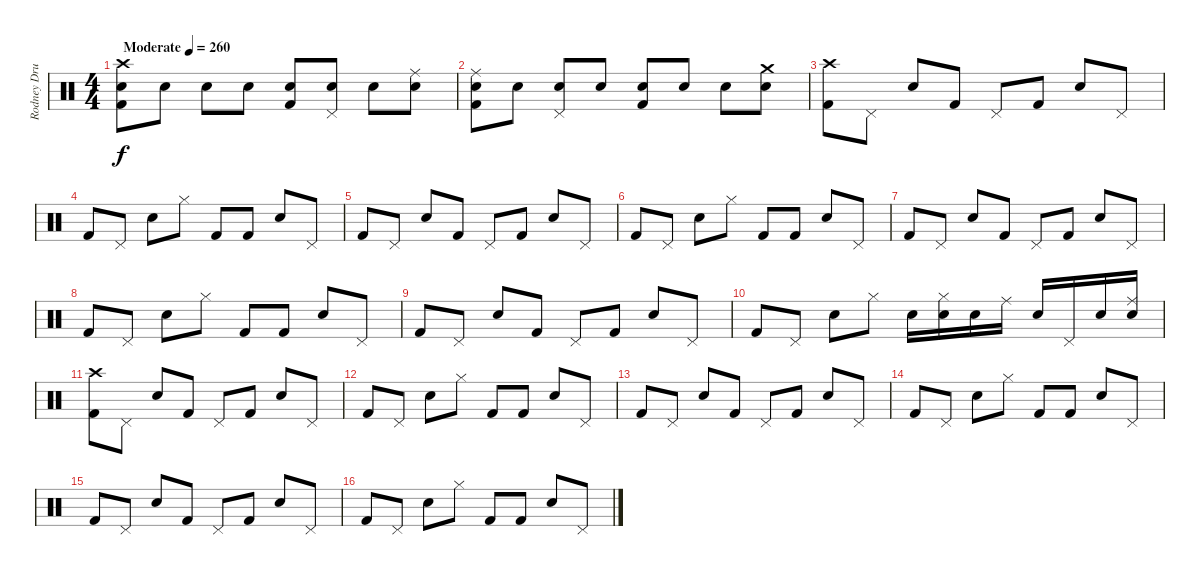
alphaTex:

\track ("Rodney Drums" "Rodney Dru") {instrument percussion}
\staff {score}
\articulation defaults
\ts (4 4)
\tempo (260 "Moderate")
\clef neutral
\ks c
("Crash high (hit)" "Electric Snare (hit)" "Kick (hit) 2").8{dy f} "Electric Snare (hit)".8 "Electric Snare (hit)".8 "Electric Snare (hit)".8 ("Electric Snare (hit)" "Kick (hit) 2").8 ("Pedal Hi-Hat (hit)" "Electric Snare (hit)").8 "Electric Snare (hit)".8 ("Electric Snare (hit)" "Ride (middle)").8 |
("Electric Snare (hit)" "Kick (hit) 2" "Ride (middle)").8 "Electric Snare (hit)".8 ("Pedal Hi-Hat (hit)" "Electric Snare (hit)").8 "Electric Snare (hit)".8 ("Electric Snare (hit)" "Kick (hit) 2").8 "Electric Snare (hit)".8 "Electric Snare (hit)".8 ("Crash medium (hit)" "Electric Snare (hit)").8 |
("Crash high (hit)" "Kick (hit) 2").8 "Pedal Hi-Hat (hit)".8 "Electric Snare (hit)".8 "Kick (hit) 2".8 "Pedal Hi-Hat (hit)".8 "Kick (hit) 2".8 "Electric Snare (hit)".8 "Pedal Hi-Hat (hit)".8 |
"Kick (hit) 2".8 "Pedal Hi-Hat (hit)".8 "Electric Snare (hit)".8 "Hi-Hat (closed)".8 "Kick (hit) 2".8 "Kick (hit) 2".8 "Electric Snare (hit)".8 "Pedal Hi-Hat (hit)".8 |
"Kick (hit) 2".8 "Pedal Hi-Hat (hit)".8 "Electric Snare (hit)".8 "Kick (hit) 2".8 "Pedal Hi-Hat (hit)".8 "Kick (hit) 2".8 "Electric Snare (hit)".8 "Pedal Hi-Hat (hit)".8 |
"Kick (hit) 2".8 "Pedal Hi-Hat (hit)".8 "Electric Snare (hit)".8 "Hi-Hat (closed)".8 "Kick (hit) 2".8 "Kick (hit) 2".8 "Electric Snare (hit)".8 "Pedal Hi-Hat (hit)".8 |
"Kick (hit) 2".8 "Pedal Hi-Hat (hit)".8 "Electric Snare (hit)".8 "Kick (hit) 2".8 "Pedal Hi-Hat (hit)".8 "Kick (hit) 2".8 "Electric Snare (hit)".8 "Pedal Hi-Hat (hit)".8 |
"Kick (hit) 2".8 "Pedal Hi-Hat (hit)".8 "Electric Snare (hit)".8 "Hi-Hat (closed)".8 "Kick (hit) 2".8 "Kick (hit) 2".8 "Electric Snare (hit)".8 "Pedal Hi-Hat (hit)".8 |
"Kick (hit) 2".8 "Pedal Hi-Hat (hit)".8 "Electric Snare (hit)".8 "Kick (hit) 2".8 "Pedal Hi-Hat (hit)".8 "Kick (hit) 2".8 "Electric Snare (hit)".8 "Pedal Hi-Hat (hit)".8 |
"Kick (hit) 2".8 "Pedal Hi-Hat (hit)".8 "Electric Snare (hit)".8 "Hi-Hat (closed)".8 "Electric Snare (hit)".16 ("Hi-Hat (closed)" "Electric Snare (hit)").16 "Electric Snare (hit)".16 "Ride (middle)".16 "Electric Snare (hit)".16 "Pedal Hi-Hat (hit)".16 "Electric Snare (hit)".16 ("Electric Snare (hit)" "Ride (middle)").16 |
("Crash high (hit)" "Kick (hit) 2").8 "Pedal Hi-Hat (hit)".8 "Electric Snare (hit)".8 "Kick (hit) 2".8 "Pedal Hi-Hat (hit)".8 "Kick (hit) 2".8 "Electric Snare (hit)".8 "Pedal Hi-Hat (hit)".8 |
"Kick (hit) 2".8 "Pedal Hi-Hat (hit)".8 "Electric Snare (hit)".8 "Hi-Hat (closed)".8 "Kick (hit) 2".8 "Kick (hit) 2".8 "Electric Snare (hit)".8 "Pedal Hi-Hat (hit)".8 |
"Kick (hit) 2".8 "Pedal Hi-Hat (hit)".8 "Electric Snare (hit)".8 "Kick (hit) 2".8 "Pedal Hi-Hat (hit)".8 "Kick (hit) 2".8 "Electric Snare (hit)".8 "Pedal Hi-Hat (hit)".8 |
"Kick (hit) 2".8 "Pedal Hi-Hat (hit)".8 "Electric Snare (hit)".8 "Hi-Hat (closed)".8 "Kick (hit) 2".8 "Kick (hit) 2".8 "Electric Snare (hit)".8 "Pedal Hi-Hat (hit)".8 |
"Kick (hit) 2".8 "Pedal Hi-Hat (hit)".8 "Electric Snare (hit)".8 "Kick (hit) 2".8 "Pedal Hi-Hat (hit)".8 "Kick (hit) 2".8 "Electric Snare (hit)".8 "Pedal Hi-Hat (hit)".8 |
"Kick (hit) 2".8 "Pedal Hi-Hat (hit)".8 "Electric Snare (hit)".8 "Hi-Hat (closed)".8 "Kick (hit) 2".8 "Kick (hit) 2".8 "Electric Snare (hit)".8 "Pedal Hi-Hat (hit)".8
